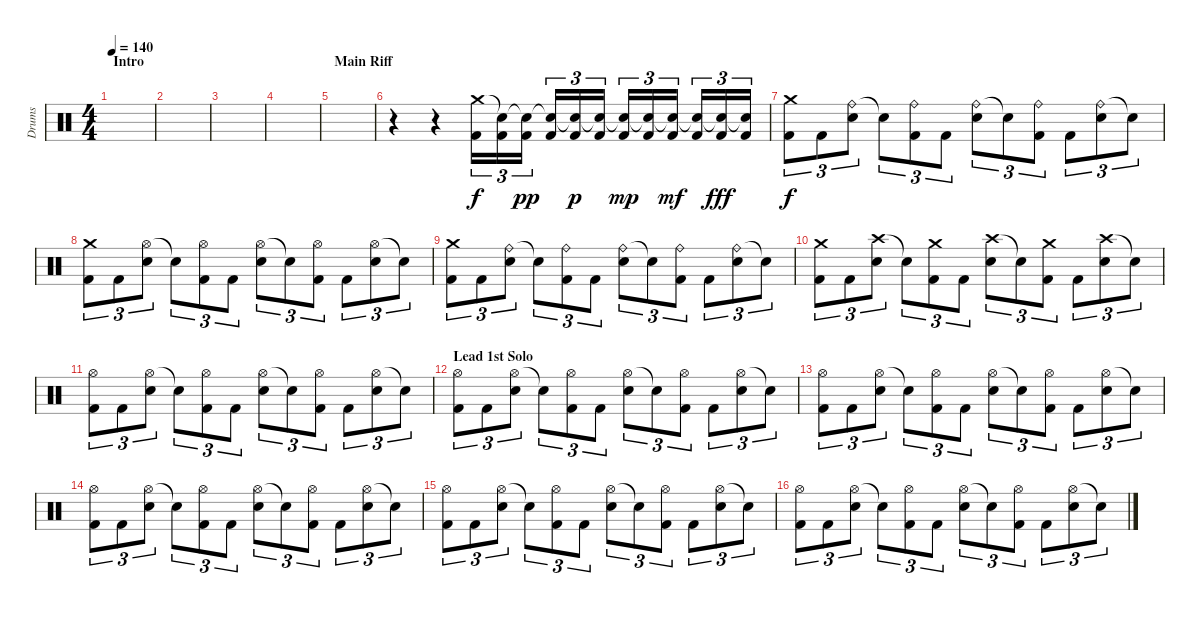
\track ("Drums" "Drums") {instrument percussion}
\staff {score}
\articulation defaults
\ts (4 4)
\section ("" "Intro")
\tempo 140
\clef neutral
\ks c
|
|
|
|
\section ("" "Main Riff")
|
r.4 r.4 ("Crash medium (hit)" "Kick (hit) 2").16{tu (3 2)} ("Snare (hit)"{t} "Kick (hit) 2").16{tu (3 2)} ("Snare (hit)"{t} "Kick (hit) 2").16{tu (3 2) dy pp} ("Snare (hit)"{t} "Kick (hit) 2").16{tu (3 2)} ("Snare (hit)"{t} "Kick (hit) 2").16{tu (3 2) dy p} ("Snare (hit)"{t} "Kick (hit) 2").16{tu (3 2)} ("Snare (hit)"{t} "Kick (hit) 2").16{tu (3 2) dy mp} ("Snare (hit)"{t} "Kick (hit) 2").16{tu (3 2)} ("Snare (hit)"{t} "Kick (hit) 2").16{tu (3 2) dy mf} ("Snare (hit)"{t} "Kick (hit) 2").16{tu (3 2)} ("Snare (hit)"{t} "Kick (hit) 2").16{tu (3 2) dy fff} ("Snare (hit)"{t} "Kick (hit) 2").16{tu (3 2)} |
("Crash medium (hit)" "Kick (hit) 2").8{tu (3 2) dy f} "Kick (hit) 2".8{tu (3 2)} ("Ride (bell)" "Electric Snare (hit)").8{tu (3 2)} "Snare (hit)"{t}.8{tu (3 2)} ("Ride (bell)" "Kick (hit) 2").8{tu (3 2)} "Kick (hit) 2".8{tu (3 2)} ("Ride (bell)" "Electric Snare (hit)").8{tu (3 2)} "Snare (hit)"{t}.8{tu (3 2)} ("Ride (bell)" "Kick (hit) 2").8{tu (3 2)} "Kick (hit) 2".8{tu (3 2)} ("Ride (bell)" "Electric Snare (hit)").8{tu (3 2)} "Snare (hit)"{t}.8{tu (3 2)} |
("Crash medium (hit)" "Kick (hit) 2").8{tu (3 2)} "Kick (hit) 2".8{tu (3 2)} ("Hi-Hat (open)" "Electric Snare (hit)").8{tu (3 2)} "Snare (hit)"{t}.8{tu (3 2)} ("Hi-Hat (open)" "Kick (hit) 2").8{tu (3 2)} "Kick (hit) 2".8{tu (3 2)} ("Hi-Hat (open)" "Electric Snare (hit)").8{tu (3 2)} "Snare (hit)"{t}.8{tu (3 2)} ("Hi-Hat (open)" "Kick (hit) 2").8{tu (3 2)} "Kick (hit) 2".8{tu (3 2)} ("Hi-Hat (open)" "Electric Snare (hit)").8{tu (3 2)} "Snare (hit)"{t}.8{tu (3 2)} |
("Crash medium (hit)" "Kick (hit) 2").8{tu (3 2)} "Kick (hit) 2".8{tu (3 2)} ("Ride (bell)" "Electric Snare (hit)").8{tu (3 2)} "Snare (hit)"{t}.8{tu (3 2)} ("Ride (bell)" "Kick (hit) 2").8{tu (3 2)} "Kick (hit) 2".8{tu (3 2)} ("Ride (bell)" "Electric Snare (hit)").8{tu (3 2)} "Snare (hit)"{t}.8{tu (3 2)} ("Ride (bell)" "Kick (hit) 2").8{tu (3 2)} "Kick (hit) 2".8{tu (3 2)} ("Ride (bell)" "Electric Snare (hit)").8{tu (3 2)} "Snare (hit)"{t}.8{tu (3 2)} |
("Crash medium (hit)" "Kick (hit) 2").8{tu (3 2)} "Kick (hit) 2".8{tu (3 2)} ("Crash high (hit)" "Electric Snare (hit)").8{tu (3 2)} "Snare (hit)"{t}.8{tu (3 2)} ("Crash medium (hit)" "Kick (hit) 2").8{tu (3 2)} "Kick (hit) 2".8{tu (3 2)} ("Crash high (hit)" "Electric Snare (hit)").8{tu (3 2)} "Snare (hit)"{t}.8{tu (3 2)} ("Crash medium (hit)" "Kick (hit) 2").8{tu (3 2)} "Kick (hit) 2".8{tu (3 2)} ("Crash high (hit)" "Electric Snare (hit)").8{tu (3 2)} "Snare (hit)"{t}.8{tu (3 2)} |
("Hi-Hat (open)" "Kick (hit) 2").8{tu (3 2)} "Kick (hit) 2".8{tu (3 2)} ("Hi-Hat (open)" "Electric Snare (hit)").8{tu (3 2)} "Snare (hit)"{t}.8{tu (3 2)} ("Hi-Hat (open)" "Kick (hit) 2").8{tu (3 2)} "Kick (hit) 2".8{tu (3 2)} ("Hi-Hat (open)" "Electric Snare (hit)").8{tu (3 2)} "Snare (hit)"{t}.8{tu (3 2)} ("Hi-Hat (open)" "Kick (hit) 2").8{tu (3 2)} "Kick (hit) 2".8{tu (3 2)} ("Hi-Hat (open)" "Electric Snare (hit)").8{tu (3 2)} "Snare (hit)"{t}.8{tu (3 2)} |
\section ("" "Lead 1st Solo")
("Hi-Hat (open)" "Kick (hit) 2").8{tu (3 2)} "Kick (hit) 2".8{tu (3 2)} ("Hi-Hat (open)" "Electric Snare (hit)").8{tu (3 2)} "Snare (hit)"{t}.8{tu (3 2)} ("Hi-Hat (open)" "Kick (hit) 2").8{tu (3 2)} "Kick (hit) 2".8{tu (3 2)} ("Hi-Hat (open)" "Electric Snare (hit)").8{tu (3 2)} "Snare (hit)"{t}.8{tu (3 2)} ("Hi-Hat (open)" "Kick (hit) 2").8{tu (3 2)} "Kick (hit) 2".8{tu (3 2)} ("Hi-Hat (open)" "Electric Snare (hit)").8{tu (3 2)} "Snare (hit)"{t}.8{tu (3 2)} |
("Hi-Hat (open)" "Kick (hit) 2").8{tu (3 2)} "Kick (hit) 2".8{tu (3 2)} ("Hi-Hat (open)" "Electric Snare (hit)").8{tu (3 2)} "Snare (hit)"{t}.8{tu (3 2)} ("Hi-Hat (open)" "Kick (hit) 2").8{tu (3 2)} "Kick (hit) 2".8{tu (3 2)} ("Hi-Hat (open)" "Electric Snare (hit)").8{tu (3 2)} "Snare (hit)"{t}.8{tu (3 2)} ("Hi-Hat (open)" "Kick (hit) 2").8{tu (3 2)} "Kick (hit) 2".8{tu (3 2)} ("Hi-Hat (open)" "Electric Snare (hit)").8{tu (3 2)} "Snare (hit)"{t}.8{tu (3 2)} |
("Hi-Hat (open)" "Kick (hit) 2").8{tu (3 2)} "Kick (hit) 2".8{tu (3 2)} ("Hi-Hat (open)" "Electric Snare (hit)").8{tu (3 2)} "Snare (hit)"{t}.8{tu (3 2)} ("Hi-Hat (open)" "Kick (hit) 2").8{tu (3 2)} "Kick (hit) 2".8{tu (3 2)} ("Hi-Hat (open)" "Electric Snare (hit)").8{tu (3 2)} "Snare (hit)"{t}.8{tu (3 2)} ("Hi-Hat (open)" "Kick (hit) 2").8{tu (3 2)} "Kick (hit) 2".8{tu (3 2)} ("Hi-Hat (open)" "Electric Snare (hit)").8{tu (3 2)} "Snare (hit)"{t}.8{tu (3 2)} |
("Hi-Hat (open)" "Kick (hit) 2").8{tu (3 2)} "Kick (hit) 2".8{tu (3 2)} ("Hi-Hat (open)" "Electric Snare (hit)").8{tu (3 2)} "Snare (hit)"{t}.8{tu (3 2)} ("Hi-Hat (open)" "Kick (hit) 2").8{tu (3 2)} "Kick (hit) 2".8{tu (3 2)} ("Hi-Hat (open)" "Electric Snare (hit)").8{tu (3 2)} "Snare (hit)"{t}.8{tu (3 2)} ("Hi-Hat (open)" "Kick (hit) 2").8{tu (3 2)} "Kick (hit) 2".8{tu (3 2)} ("Hi-Hat (open)" "Electric Snare (hit)").8{tu (3 2)} "Snare (hit)"{t}.8{tu (3 2)} |
("Hi-Hat (open)" "Kick (hit) 2").8{tu (3 2)} "Kick (hit) 2".8{tu (3 2)} ("Hi-Hat (open)" "Electric Snare (hit)").8{tu (3 2)} "Snare (hit)"{t}.8{tu (3 2)} ("Hi-Hat (open)" "Kick (hit) 2").8{tu (3 2)} "Kick (hit) 2".8{tu (3 2)} ("Hi-Hat (open)" "Electric Snare (hit)").8{tu (3 2)} "Snare (hit)"{t}.8{tu (3 2)} ("Hi-Hat (open)" "Kick (hit) 2").8{tu (3 2)} "Kick (hit) 2".8{tu (3 2)} ("Hi-Hat (open)" "Electric Snare (hit)").8{tu (3 2)} "Snare (hit)"{t}.8{tu (3 2)}
